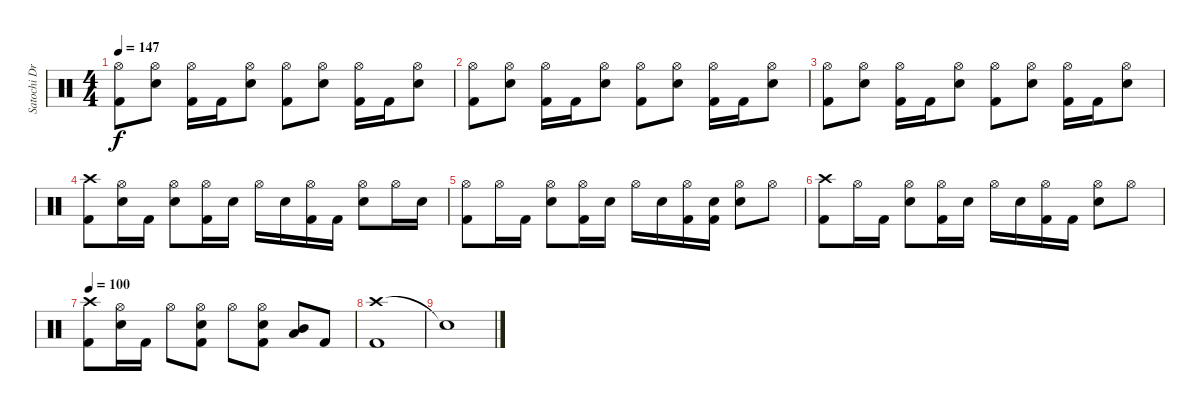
\track ("Satochi Drums" "Satochi Dr") {instrument percussion}
\staff {score}
\articulation defaults
\ts (4 4)
\tempo 147
\clef neutral
\ks c
("Hi-Hat (open)" "Kick (hit) 2").8{dy f} ("Hi-Hat (open)" "Snare (hit) 2").8 ("Hi-Hat (open)" "Kick (hit) 2").16 "Kick (hit) 2".16 ("Hi-Hat (open)" "Snare (hit) 2").8 ("Hi-Hat (open)" "Kick (hit) 2").8 ("Hi-Hat (open)" "Snare (hit) 2").8 ("Hi-Hat (open)" "Kick (hit) 2").16 "Kick (hit) 2".16 ("Hi-Hat (open)" "Snare (hit) 2").8 |
("Hi-Hat (open)" "Kick (hit) 2").8 ("Hi-Hat (open)" "Snare (hit) 2").8 ("Hi-Hat (open)" "Kick (hit) 2").16 "Kick (hit) 2".16 ("Hi-Hat (open)" "Snare (hit) 2").8 ("Hi-Hat (open)" "Kick (hit) 2").8 ("Hi-Hat (open)" "Snare (hit) 2").8 ("Hi-Hat (open)" "Kick (hit) 2").16 "Kick (hit) 2".16 ("Hi-Hat (open)" "Snare (hit) 2").8 |
("Hi-Hat (open)" "Kick (hit) 2").8 ("Hi-Hat (open)" "Snare (hit) 2").8 ("Hi-Hat (open)" "Kick (hit) 2").16 "Kick (hit) 2".16 ("Hi-Hat (open)" "Snare (hit) 2").8 ("Hi-Hat (open)" "Kick (hit) 2").8 ("Hi-Hat (open)" "Snare (hit) 2").8 ("Hi-Hat (open)" "Kick (hit) 2").16 "Kick (hit) 2".16 ("Hi-Hat (open)" "Snare (hit) 2").8 |
("Crash high (hit)" "Kick (hit) 2").8 ("Hi-Hat (open)" "Snare (hit) 2").16 "Kick (hit) 2".16 ("Hi-Hat (open)" "Snare (hit) 2").8 ("Hi-Hat (open)" "Kick (hit) 2").16 "Snare (hit) 2".16 "Hi-Hat (open)".16 "Snare (hit) 2".16 ("Hi-Hat (open)" "Kick (hit) 2").16 "Kick (hit) 2".16 ("Hi-Hat (open)" "Snare (hit) 2").8 "Hi-Hat (open)".16 "Snare (hit) 2".16 |
("Hi-Hat (open)" "Kick (hit) 2").8 "Hi-Hat (open)".16 "Kick (hit) 2".16 ("Hi-Hat (open)" "Snare (hit) 2").8 ("Hi-Hat (open)" "Kick (hit) 2").16 "Snare (hit) 2".16 "Hi-Hat (open)".16 "Snare (hit) 2".16 ("Hi-Hat (open)" "Kick (hit) 2").16 ("Snare (hit) 2" "Kick (hit) 2").16 ("Hi-Hat (open)" "Snare (hit) 2").8 "Hi-Hat (open)".8 |
("Crash high (hit)" "Kick (hit) 2").8 "Hi-Hat (open)".16 "Kick (hit) 2".16 ("Hi-Hat (open)" "Snare (hit) 2").8 ("Hi-Hat (open)" "Kick (hit) 2").16 "Snare (hit) 2".16 "Hi-Hat (open)".16 "Snare (hit) 2".16 ("Hi-Hat (open)" "Kick (hit) 2").16 "Kick (hit) 2".16 ("Hi-Hat (open)" "Snare (hit) 2").8 "Hi-Hat (open)".8 |
\tempo 100
("Crash high (hit)" "Kick (hit) 2").8 ("Hi-Hat (open)" "Snare (hit) 2").16 "Kick (hit) 2".16 "Hi-Hat (open)".8 ("Hi-Hat (open)" "Snare (hit) 2" "Kick (hit) 2").8 "Hi-Hat (open)".8 ("Hi-Hat (open)" "Snare (hit) 2" "Kick (hit) 2").8 ("Mid Tom (hit)" "Low Tom (hit)").8 "Kick (hit) 2".8 |
("Crash high (hit)" "Kick (hit) 2").1 |
"Snare (hit)"{t}.1
